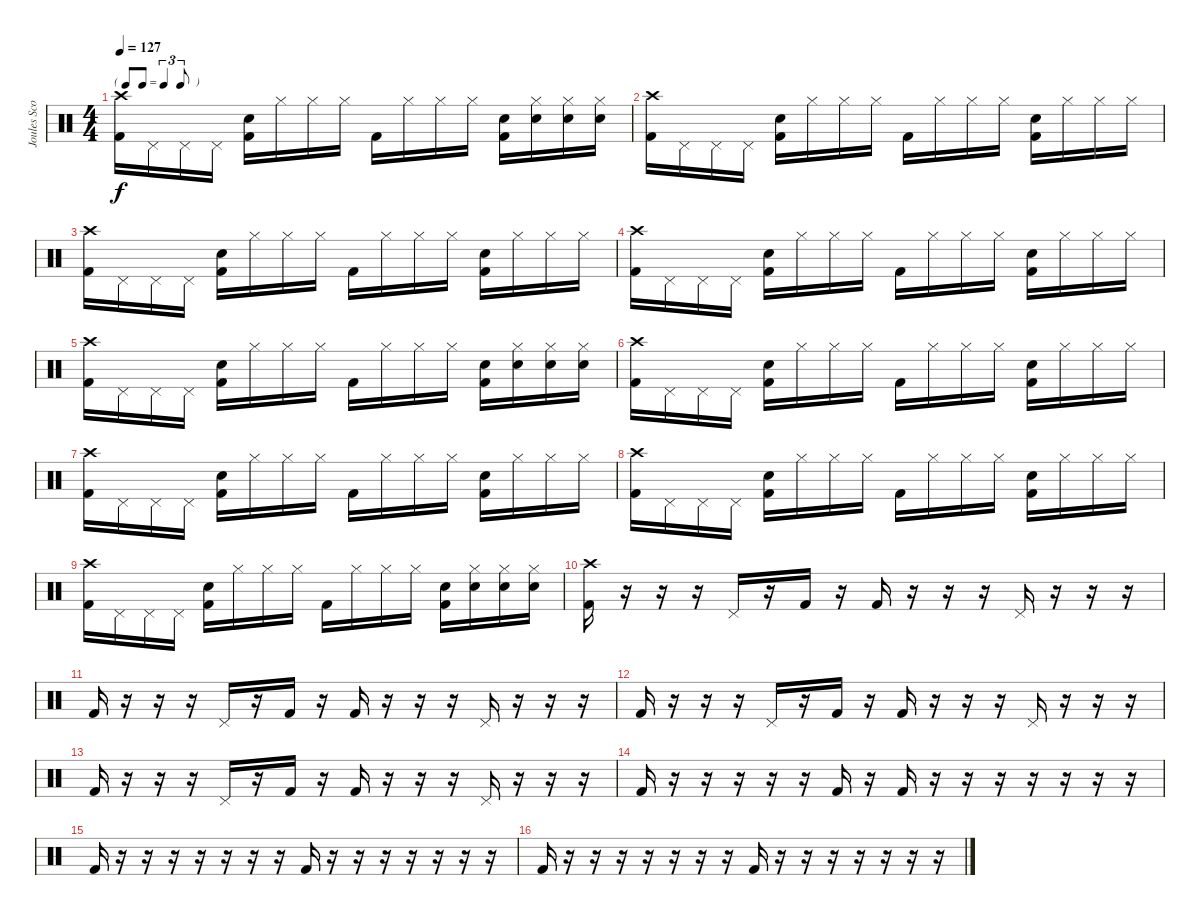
\track ("Joules Scott-Key" "Joules Sco") {instrument percussion}
\staff {score}
\articulation defaults
\ts (4 4)
\tf triplet8th
\tempo 127
\clef neutral
\ks c
("Crash high (hit)" "Kick (hit) 2").16{dy f} "Pedal Hi-Hat (hit)".16 "Pedal Hi-Hat (hit)".16 "Pedal Hi-Hat (hit)".16 ("Electric Snare (hit)" "Kick (hit) 2").16 "Hi-Hat (closed)".16 "Hi-Hat (closed)".16 "Hi-Hat (closed)".16 "Kick (hit) 2".16 "Hi-Hat (closed)".16 "Hi-Hat (closed)".16 "Hi-Hat (closed)".16 ("Electric Snare (hit)" "Kick (hit) 2").16 ("Hi-Hat (closed)" "Electric Snare (hit)").16 ("Hi-Hat (closed)" "Electric Snare (hit)").16 ("Hi-Hat (closed)" "Electric Snare (hit)").16 |
("Crash high (hit)" "Kick (hit) 2").16 "Pedal Hi-Hat (hit)".16 "Pedal Hi-Hat (hit)".16 "Pedal Hi-Hat (hit)".16 ("Electric Snare (hit)" "Kick (hit) 2").16 "Hi-Hat (closed)".16 "Hi-Hat (closed)".16 "Hi-Hat (closed)".16 "Kick (hit) 2".16 "Hi-Hat (closed)".16 "Hi-Hat (closed)".16 "Hi-Hat (closed)".16 ("Electric Snare (hit)" "Kick (hit) 2").16 "Hi-Hat (closed)".16 "Hi-Hat (closed)".16 "Hi-Hat (closed)".16 |
("Crash high (hit)" "Kick (hit) 2").16 "Pedal Hi-Hat (hit)".16 "Pedal Hi-Hat (hit)".16 "Pedal Hi-Hat (hit)".16 ("Electric Snare (hit)" "Kick (hit) 2").16 "Hi-Hat (closed)".16 "Hi-Hat (closed)".16 "Hi-Hat (closed)".16 "Kick (hit) 2".16 "Hi-Hat (closed)".16 "Hi-Hat (closed)".16 "Hi-Hat (closed)".16 ("Electric Snare (hit)" "Kick (hit) 2").16 "Hi-Hat (closed)".16 "Hi-Hat (closed)".16 "Hi-Hat (closed)".16 |
("Crash high (hit)" "Kick (hit) 2").16 "Pedal Hi-Hat (hit)".16 "Pedal Hi-Hat (hit)".16 "Pedal Hi-Hat (hit)".16 ("Electric Snare (hit)" "Kick (hit) 2").16 "Hi-Hat (closed)".16 "Hi-Hat (closed)".16 "Hi-Hat (closed)".16 "Kick (hit) 2".16 "Hi-Hat (closed)".16 "Hi-Hat (closed)".16 "Hi-Hat (closed)".16 ("Electric Snare (hit)" "Kick (hit) 2").16 "Hi-Hat (closed)".16 "Hi-Hat (closed)".16 "Hi-Hat (closed)".16 |
("Crash high (hit)" "Kick (hit) 2").16 "Pedal Hi-Hat (hit)".16 "Pedal Hi-Hat (hit)".16 "Pedal Hi-Hat (hit)".16 ("Electric Snare (hit)" "Kick (hit) 2").16 "Hi-Hat (closed)".16 "Hi-Hat (closed)".16 "Hi-Hat (closed)".16 "Kick (hit) 2".16 "Hi-Hat (closed)".16 "Hi-Hat (closed)".16 "Hi-Hat (closed)".16 ("Electric Snare (hit)" "Kick (hit) 2").16 ("Hi-Hat (closed)" "Electric Snare (hit)").16 ("Hi-Hat (closed)" "Electric Snare (hit)").16 ("Hi-Hat (closed)" "Electric Snare (hit)").16 |
("Crash high (hit)" "Kick (hit) 2").16 "Pedal Hi-Hat (hit)".16 "Pedal Hi-Hat (hit)".16 "Pedal Hi-Hat (hit)".16 ("Electric Snare (hit)" "Kick (hit) 2").16 "Hi-Hat (closed)".16 "Hi-Hat (closed)".16 "Hi-Hat (closed)".16 "Kick (hit) 2".16 "Hi-Hat (closed)".16 "Hi-Hat (closed)".16 "Hi-Hat (closed)".16 ("Electric Snare (hit)" "Kick (hit) 2").16 "Hi-Hat (closed)".16 "Hi-Hat (closed)".16 "Hi-Hat (closed)".16 |
("Crash high (hit)" "Kick (hit) 2").16 "Pedal Hi-Hat (hit)".16 "Pedal Hi-Hat (hit)".16 "Pedal Hi-Hat (hit)".16 ("Electric Snare (hit)" "Kick (hit) 2").16 "Hi-Hat (closed)".16 "Hi-Hat (closed)".16 "Hi-Hat (closed)".16 "Kick (hit) 2".16 "Hi-Hat (closed)".16 "Hi-Hat (closed)".16 "Hi-Hat (closed)".16 ("Electric Snare (hit)" "Kick (hit) 2").16 "Hi-Hat (closed)".16 "Hi-Hat (closed)".16 "Hi-Hat (closed)".16 |
("Crash high (hit)" "Kick (hit) 2").16 "Pedal Hi-Hat (hit)".16 "Pedal Hi-Hat (hit)".16 "Pedal Hi-Hat (hit)".16 ("Electric Snare (hit)" "Kick (hit) 2").16 "Hi-Hat (closed)".16 "Hi-Hat (closed)".16 "Hi-Hat (closed)".16 "Kick (hit) 2".16 "Hi-Hat (closed)".16 "Hi-Hat (closed)".16 "Hi-Hat (closed)".16 ("Electric Snare (hit)" "Kick (hit) 2").16 "Hi-Hat (closed)".16 "Hi-Hat (closed)".16 "Hi-Hat (closed)".16 |
("Crash high (hit)" "Kick (hit) 2").16 "Pedal Hi-Hat (hit)".16 "Pedal Hi-Hat (hit)".16 "Pedal Hi-Hat (hit)".16 ("Electric Snare (hit)" "Kick (hit) 2").16 "Hi-Hat (closed)".16 "Hi-Hat (closed)".16 "Hi-Hat (closed)".16 "Kick (hit) 2".16 "Hi-Hat (closed)".16 "Hi-Hat (closed)".16 "Hi-Hat (closed)".16 ("Electric Snare (hit)" "Kick (hit) 2").16 ("Hi-Hat (closed)" "Electric Snare (hit)").16 ("Hi-Hat (closed)" "Electric Snare (hit)").16 ("Hi-Hat (closed)" "Electric Snare (hit)").16 |
("Crash high (hit)" "Kick (hit) 2").16 r.16 r.16 r.16 "Pedal Hi-Hat (hit)".16 r.16 "Kick (hit) 2".16 r.16 "Kick (hit) 2".16 r.16 r.16 r.16 "Pedal Hi-Hat (hit)".16 r.16 r.16 r.16 |
"Kick (hit) 2".16 r.16 r.16 r.16 "Pedal Hi-Hat (hit)".16 r.16 "Kick (hit) 2".16 r.16 "Kick (hit) 2".16 r.16 r.16 r.16 "Pedal Hi-Hat (hit)".16 r.16 r.16 r.16 |
"Kick (hit) 2".16 r.16 r.16 r.16 "Pedal Hi-Hat (hit)".16 r.16 "Kick (hit) 2".16 r.16 "Kick (hit) 2".16 r.16 r.16 r.16 "Pedal Hi-Hat (hit)".16 r.16 r.16 r.16 |
"Kick (hit) 2".16 r.16 r.16 r.16 "Pedal Hi-Hat (hit)".16 r.16 "Kick (hit) 2".16 r.16 "Kick (hit) 2".16 r.16 r.16 r.16 "Pedal Hi-Hat (hit)".16 r.16 r.16 r.16 |
"Kick (hit) 2".16 r.16 r.16 r.16 r.16 r.16 "Kick (hit) 2".16 r.16 "Kick (hit) 2".16 r.16 r.16 r.16 r.16 r.16 r.16 r.16 |
"Kick (hit) 2".16 r.16 r.16 r.16 r.16 r.16 r.16 r.16 "Kick (hit) 2".16 r.16 r.16 r.16 r.16 r.16 r.16 r.16 |
"Kick (hit) 2".16 r.16 r.16 r.16 r.16 r.16 r.16 r.16 "Kick (hit) 2".16 r.16 r.16 r.16 r.16 r.16 r.16 r.16
